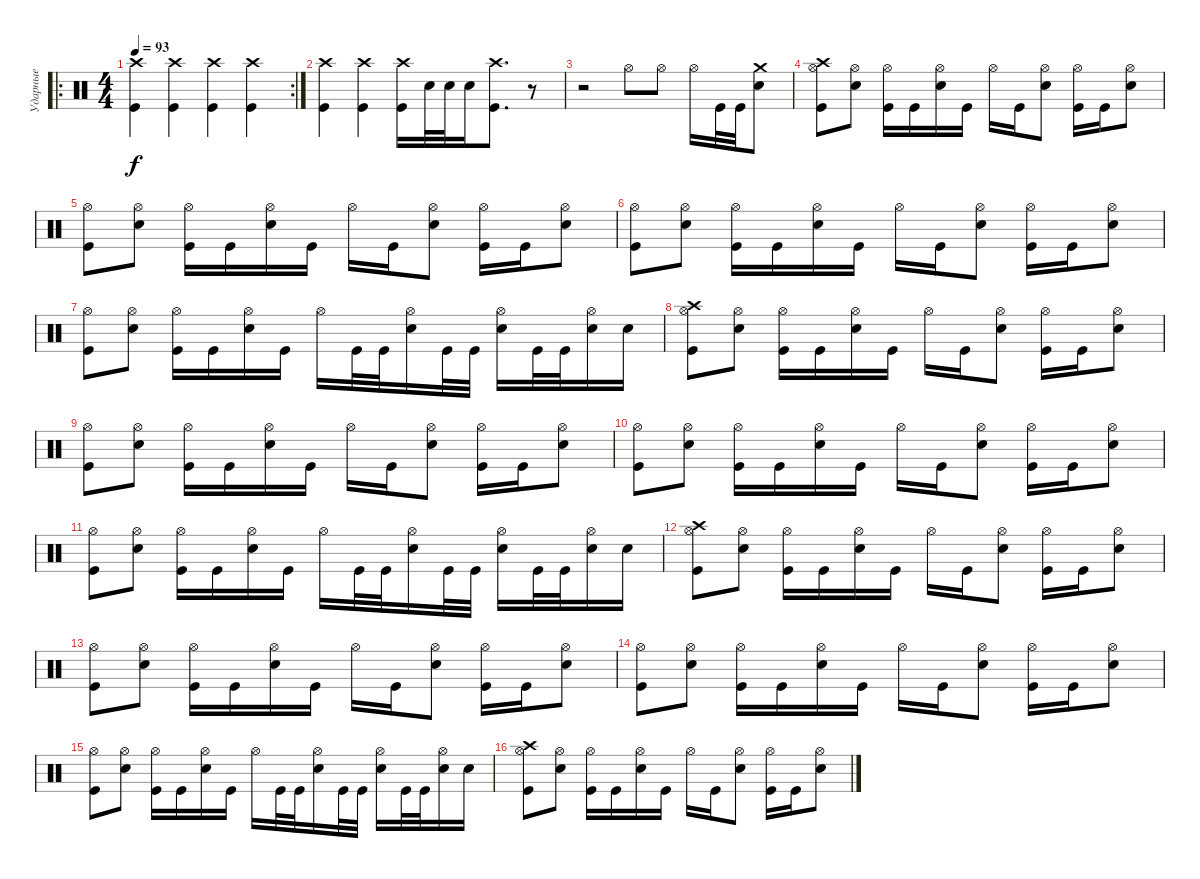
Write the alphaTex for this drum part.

\track ("Ударные" "Ударные") {instrument percussion}
\staff {score}
\articulation defaults
\ro
\rc 2
\ts (4 4)
\tempo 93
\clef neutral
\ks c
("Kick (hit)" "Crash high (hit)").4{dy f} ("Kick (hit)" "Crash high (hit)").4 ("Kick (hit)" "Crash high (hit)").4 ("Kick (hit)" "Crash high (hit)").4 |
("Kick (hit)" "Crash high (hit)").4 ("Kick (hit)" "Crash high (hit)").4 ("Kick (hit)" "Crash high (hit)").16 "Snare (hit) 2".32 "Snare (hit) 2".32 "Snare (hit) 2".16 ("Kick (hit)" "Crash high (hit)").8{d} r.8 |
r.2 "Hi-Hat (open)".8 "Hi-Hat (open)".8 "Hi-Hat (open)".16 "Kick (hit)".32 "Kick (hit)".32 ("Snare (hit) 2" "Crash medium (hit)").8 |
("Kick (hit)" "Hi-Hat (open)" "Crash high (hit)").8 ("Hi-Hat (open)" "Snare (hit) 2").8 ("Kick (hit)" "Hi-Hat (open)").16 "Kick (hit)".16 ("Snare (hit) 2" "Hi-Hat (open)").16 "Kick (hit)".16 "Hi-Hat (open)".16 "Kick (hit)".16 ("Hi-Hat (open)" "Snare (hit) 2").8 ("Kick (hit)" "Hi-Hat (open)").16 "Kick (hit)".16 ("Snare (hit) 2" "Hi-Hat (open)").8 |
("Kick (hit)" "Hi-Hat (open)").8 ("Hi-Hat (open)" "Snare (hit) 2").8 ("Kick (hit)" "Hi-Hat (open)").16 "Kick (hit)".16 ("Snare (hit) 2" "Hi-Hat (open)").16 "Kick (hit)".16 "Hi-Hat (open)".16 "Kick (hit)".16 ("Hi-Hat (open)" "Snare (hit) 2").8 ("Kick (hit)" "Hi-Hat (open)").16 "Kick (hit)".16 ("Snare (hit) 2" "Hi-Hat (open)").8 |
("Kick (hit)" "Hi-Hat (open)").8 ("Hi-Hat (open)" "Snare (hit) 2").8 ("Kick (hit)" "Hi-Hat (open)").16 "Kick (hit)".16 ("Snare (hit) 2" "Hi-Hat (open)").16 "Kick (hit)".16 "Hi-Hat (open)".16 "Kick (hit)".16 ("Hi-Hat (open)" "Snare (hit) 2").8 ("Kick (hit)" "Hi-Hat (open)").16 "Kick (hit)".16 ("Snare (hit) 2" "Hi-Hat (open)").8 |
("Kick (hit)" "Hi-Hat (open)").8 ("Hi-Hat (open)" "Snare (hit) 2").8 ("Kick (hit)" "Hi-Hat (open)").16 "Kick (hit)".16 ("Snare (hit) 2" "Hi-Hat (open)").16 "Kick (hit)".16 "Hi-Hat (open)".16 "Kick (hit)".32 "Kick (hit)".32 ("Hi-Hat (open)" "Snare (hit) 2").16 "Kick (hit)".32 "Kick (hit)".32 ("Hi-Hat (open)" "Snare (hit) 2").16 "Kick (hit)".32 "Kick (hit)".32 ("Hi-Hat (open)" "Snare (hit) 2").16 "Snare (hit) 2".16 |
("Kick (hit)" "Hi-Hat (open)" "Crash high (hit)").8 ("Hi-Hat (open)" "Snare (hit) 2").8 ("Kick (hit)" "Hi-Hat (open)").16 "Kick (hit)".16 ("Snare (hit) 2" "Hi-Hat (open)").16 "Kick (hit)".16 "Hi-Hat (open)".16 "Kick (hit)".16 ("Hi-Hat (open)" "Snare (hit) 2").8 ("Kick (hit)" "Hi-Hat (open)").16 "Kick (hit)".16 ("Snare (hit) 2" "Hi-Hat (open)").8 |
("Kick (hit)" "Hi-Hat (open)").8 ("Hi-Hat (open)" "Snare (hit) 2").8 ("Kick (hit)" "Hi-Hat (open)").16 "Kick (hit)".16 ("Snare (hit) 2" "Hi-Hat (open)").16 "Kick (hit)".16 "Hi-Hat (open)".16 "Kick (hit)".16 ("Hi-Hat (open)" "Snare (hit) 2").8 ("Kick (hit)" "Hi-Hat (open)").16 "Kick (hit)".16 ("Snare (hit) 2" "Hi-Hat (open)").8 |
("Kick (hit)" "Hi-Hat (open)").8 ("Hi-Hat (open)" "Snare (hit) 2").8 ("Kick (hit)" "Hi-Hat (open)").16 "Kick (hit)".16 ("Snare (hit) 2" "Hi-Hat (open)").16 "Kick (hit)".16 "Hi-Hat (open)".16 "Kick (hit)".16 ("Hi-Hat (open)" "Snare (hit) 2").8 ("Kick (hit)" "Hi-Hat (open)").16 "Kick (hit)".16 ("Snare (hit) 2" "Hi-Hat (open)").8 |
("Kick (hit)" "Hi-Hat (open)").8 ("Hi-Hat (open)" "Snare (hit) 2").8 ("Kick (hit)" "Hi-Hat (open)").16 "Kick (hit)".16 ("Snare (hit) 2" "Hi-Hat (open)").16 "Kick (hit)".16 "Hi-Hat (open)".16 "Kick (hit)".32 "Kick (hit)".32 ("Hi-Hat (open)" "Snare (hit) 2").16 "Kick (hit)".32 "Kick (hit)".32 ("Hi-Hat (open)" "Snare (hit) 2").16 "Kick (hit)".32 "Kick (hit)".32 ("Hi-Hat (open)" "Snare (hit) 2").16 "Snare (hit) 2".16 |
("Kick (hit)" "Hi-Hat (open)" "Crash high (hit)").8 ("Hi-Hat (open)" "Snare (hit) 2").8 ("Kick (hit)" "Hi-Hat (open)").16 "Kick (hit)".16 ("Snare (hit) 2" "Hi-Hat (open)").16 "Kick (hit)".16 "Hi-Hat (open)".16 "Kick (hit)".16 ("Hi-Hat (open)" "Snare (hit) 2").8 ("Kick (hit)" "Hi-Hat (open)").16 "Kick (hit)".16 ("Snare (hit) 2" "Hi-Hat (open)").8 |
("Kick (hit)" "Hi-Hat (open)").8 ("Hi-Hat (open)" "Snare (hit) 2").8 ("Kick (hit)" "Hi-Hat (open)").16 "Kick (hit)".16 ("Snare (hit) 2" "Hi-Hat (open)").16 "Kick (hit)".16 "Hi-Hat (open)".16 "Kick (hit)".16 ("Hi-Hat (open)" "Snare (hit) 2").8 ("Kick (hit)" "Hi-Hat (open)").16 "Kick (hit)".16 ("Snare (hit) 2" "Hi-Hat (open)").8 |
("Kick (hit)" "Hi-Hat (open)").8 ("Hi-Hat (open)" "Snare (hit) 2").8 ("Kick (hit)" "Hi-Hat (open)").16 "Kick (hit)".16 ("Snare (hit) 2" "Hi-Hat (open)").16 "Kick (hit)".16 "Hi-Hat (open)".16 "Kick (hit)".16 ("Hi-Hat (open)" "Snare (hit) 2").8 ("Kick (hit)" "Hi-Hat (open)").16 "Kick (hit)".16 ("Snare (hit) 2" "Hi-Hat (open)").8 |
("Kick (hit)" "Hi-Hat (open)").8 ("Hi-Hat (open)" "Snare (hit) 2").8 ("Kick (hit)" "Hi-Hat (open)").16 "Kick (hit)".16 ("Snare (hit) 2" "Hi-Hat (open)").16 "Kick (hit)".16 "Hi-Hat (open)".16 "Kick (hit)".32 "Kick (hit)".32 ("Hi-Hat (open)" "Snare (hit) 2").16 "Kick (hit)".32 "Kick (hit)".32 ("Hi-Hat (open)" "Snare (hit) 2").16 "Kick (hit)".32 "Kick (hit)".32 ("Hi-Hat (open)" "Snare (hit) 2").16 "Snare (hit) 2".16 |
("Kick (hit)" "Hi-Hat (open)" "Crash high (hit)").8 ("Hi-Hat (open)" "Snare (hit) 2").8 ("Kick (hit)" "Hi-Hat (open)").16 "Kick (hit)".16 ("Snare (hit) 2" "Hi-Hat (open)").16 "Kick (hit)".16 "Hi-Hat (open)".16 "Kick (hit)".16 ("Hi-Hat (open)" "Snare (hit) 2").8 ("Kick (hit)" "Hi-Hat (open)").16 "Kick (hit)".16 ("Snare (hit) 2" "Hi-Hat (open)").8
